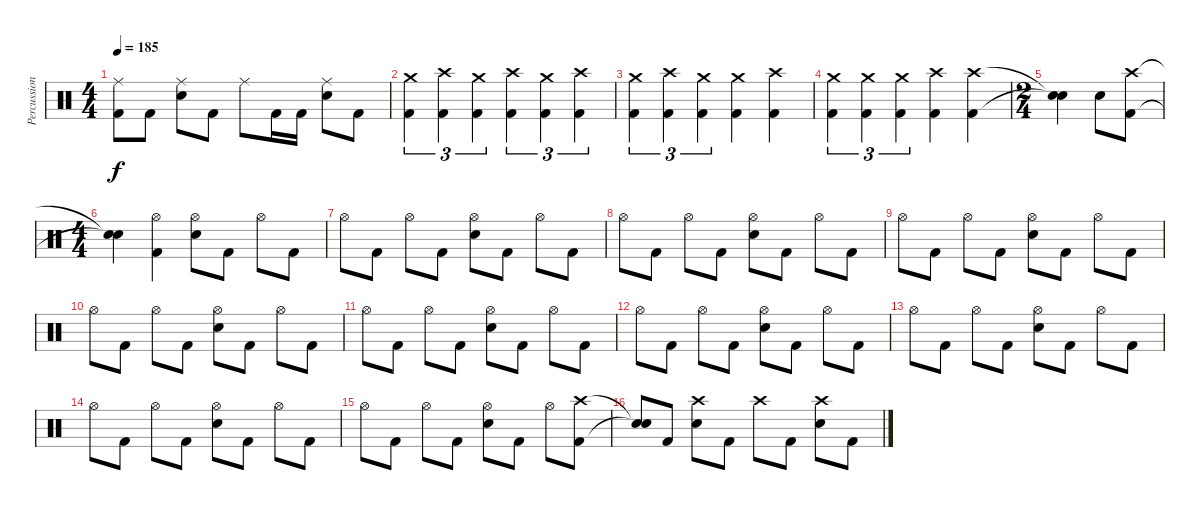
\track ("Percussion" "Percussion") {instrument percussion}
\staff {score}
\articulation defaults
\ts (4 4)
\tempo 185
\clef neutral
\ks c
("Ride (middle)" "Kick (hit) 2").8{dy f} "Kick (hit) 2".8 ("Ride (middle)" "Electric Snare (hit)").8 "Kick (hit) 2".8 "Ride (middle)".8 "Kick (hit) 2".16 "Kick (hit) 2".16 ("Ride (middle)" "Electric Snare (hit)").8 "Kick (hit) 2".8 |
("Crash medium (hit)" "Kick (hit) 2").4{tu (3 2)} ("Crash high (hit)" "Kick (hit) 2").4{tu (3 2)} ("Crash medium (hit)" "Kick (hit) 2").4{tu (3 2)} ("Crash high (hit)" "Kick (hit) 2").4{tu (3 2)} ("Crash medium (hit)" "Kick (hit) 2").4{tu (3 2)} ("Crash high (hit)" "Kick (hit) 2").4{tu (3 2)} |
("Crash medium (hit)" "Kick (hit) 2").4{tu (3 2)} ("Crash high (hit)" "Kick (hit) 2").4{tu (3 2)} ("Crash medium (hit)" "Kick (hit) 2").4{tu (3 2)} ("Crash medium (hit)" "Kick (hit) 2").4 ("Crash high (hit)" "Kick (hit) 2").4 |
("Crash medium (hit)" "Kick (hit) 2").4{tu (3 2)} ("Crash medium (hit)" "Kick (hit) 2").4{tu (3 2)} ("Crash medium (hit)" "Kick (hit) 2").4{tu (3 2)} ("Crash high (hit)" "Kick (hit) 2").4 ("Crash high (hit)" "Kick (hit) 2").4 |
\ts (2 4)
("Snare (hit)"{t} "Snare (hit)"{t}).4 "Electric Snare (hit)".8 ("Crash high (hit)" "Kick (hit) 2").8 |
\ts (4 4)
("Snare (hit)"{t} "Snare (hit)"{t}).4 ("Hi-Hat (open)" "Kick (hit) 2").4 ("Hi-Hat (open)" "Electric Snare (hit)").8 "Kick (hit) 2".8 "Hi-Hat (open)".8 "Kick (hit) 2".8 |
"Hi-Hat (open)".8 "Kick (hit) 2".8 "Hi-Hat (open)".8 "Kick (hit) 2".8 ("Hi-Hat (open)" "Electric Snare (hit)").8 "Kick (hit) 2".8 "Hi-Hat (open)".8 "Kick (hit) 2".8 |
"Hi-Hat (open)".8 "Kick (hit) 2".8 "Hi-Hat (open)".8 "Kick (hit) 2".8 ("Hi-Hat (open)" "Electric Snare (hit)").8 "Kick (hit) 2".8 "Hi-Hat (open)".8 "Kick (hit) 2".8 |
"Hi-Hat (open)".8 "Kick (hit) 2".8 "Hi-Hat (open)".8 "Kick (hit) 2".8 ("Hi-Hat (open)" "Electric Snare (hit)").8 "Kick (hit) 2".8 "Hi-Hat (open)".8 "Kick (hit) 2".8 |
"Hi-Hat (open)".8 "Kick (hit) 2".8 "Hi-Hat (open)".8 "Kick (hit) 2".8 ("Hi-Hat (open)" "Electric Snare (hit)").8 "Kick (hit) 2".8 "Hi-Hat (open)".8 "Kick (hit) 2".8 |
"Hi-Hat (open)".8 "Kick (hit) 2".8 "Hi-Hat (open)".8 "Kick (hit) 2".8 ("Hi-Hat (open)" "Electric Snare (hit)").8 "Kick (hit) 2".8 "Hi-Hat (open)".8 "Kick (hit) 2".8 |
"Hi-Hat (open)".8 "Kick (hit) 2".8 "Hi-Hat (open)".8 "Kick (hit) 2".8 ("Hi-Hat (open)" "Electric Snare (hit)").8 "Kick (hit) 2".8 "Hi-Hat (open)".8 "Kick (hit) 2".8 |
"Hi-Hat (open)".8 "Kick (hit) 2".8 "Hi-Hat (open)".8 "Kick (hit) 2".8 ("Hi-Hat (open)" "Electric Snare (hit)").8 "Kick (hit) 2".8 "Hi-Hat (open)".8 "Kick (hit) 2".8 |
"Hi-Hat (open)".8 "Kick (hit) 2".8 "Hi-Hat (open)".8 "Kick (hit) 2".8 ("Hi-Hat (open)" "Electric Snare (hit)").8 "Kick (hit) 2".8 "Hi-Hat (open)".8 "Kick (hit) 2".8 |
"Hi-Hat (open)".8 "Kick (hit) 2".8 "Hi-Hat (open)".8 "Kick (hit) 2".8 ("Hi-Hat (open)" "Electric Snare (hit)").8 "Kick (hit) 2".8 "Hi-Hat (open)".8 ("Crash high (hit)" "Kick (hit) 2").8 |
("Snare (hit)"{t} "Snare (hit)"{t}).8 "Kick (hit) 2".8 ("Crash high (hit)" "Electric Snare (hit)").8 "Kick (hit) 2".8 "Crash high (hit)".8 "Kick (hit) 2".8 ("Crash high (hit)" "Electric Snare (hit)").8 "Kick (hit) 2".8
